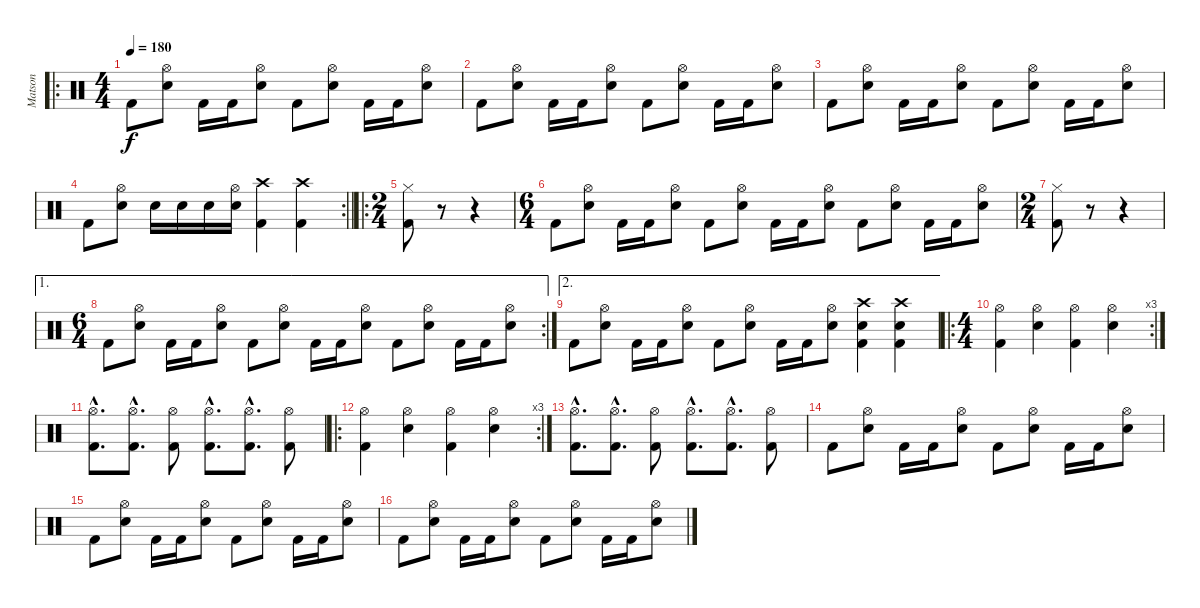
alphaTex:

\track ("Matson" "Matson") {instrument percussion}
\staff {score}
\articulation defaults
\ro
\ts (4 4)
\section ("" "")
\tempo 180
\clef neutral
\ks c "Kick (hit) 2".8{dy f}
("Hi-Hat (open)" "Snare (hit) 2").8 "Kick (hit) 2".16 "Kick (hit) 2".16 ("Hi-Hat (open)" "Snare (hit) 2").8 "Kick (hit) 2".8 ("Hi-Hat (open)" "Snare (hit) 2").8 "Kick (hit) 2".16 "Kick (hit) 2".16 ("Hi-Hat (open)" "Snare (hit) 2").8 |
"Kick (hit) 2".8 ("Hi-Hat (open)" "Snare (hit) 2").8 "Kick (hit) 2".16 "Kick (hit) 2".16 ("Hi-Hat (open)" "Snare (hit) 2").8 "Kick (hit) 2".8 ("Hi-Hat (open)" "Snare (hit) 2").8 "Kick (hit) 2".16 "Kick (hit) 2".16 ("Hi-Hat (open)" "Snare (hit) 2").8 |
"Kick (hit) 2".8 ("Hi-Hat (open)" "Snare (hit) 2").8 "Kick (hit) 2".16 "Kick (hit) 2".16 ("Hi-Hat (open)" "Snare (hit) 2").8 "Kick (hit) 2".8 ("Hi-Hat (open)" "Snare (hit) 2").8 "Kick (hit) 2".16 "Kick (hit) 2".16 ("Hi-Hat (open)" "Snare (hit) 2").8 |
\rc 2
\barLineRight lightlight "Kick (hit) 2".8
("Hi-Hat (open)" "Snare (hit) 2").8 "Snare (hit) 2".16 "Snare (hit) 2".16 "Snare (hit) 2".16 ("Hi-Hat (open)" "Snare (hit) 2").16 ("Crash high (hit)" "Kick (hit) 2").4 ("Crash high (hit)" "Kick (hit) 2").4 |
\ro
\ts (2 4)
\section ("" "")
("Hi-Hat (closed)" "Kick (hit) 2").8 r.8 r.4 |
\ts (6 4)
"Kick (hit) 2".8 ("Hi-Hat (open)" "Snare (hit) 2").8 "Kick (hit) 2".16 "Kick (hit) 2".16 ("Hi-Hat (open)" "Snare (hit) 2").8 "Kick (hit) 2".8 ("Hi-Hat (open)" "Snare (hit) 2").8 "Kick (hit) 2".16 "Kick (hit) 2".16 ("Hi-Hat (open)" "Snare (hit) 2").8 "Kick (hit) 2".8 ("Hi-Hat (open)" "Snare (hit) 2").8 "Kick (hit) 2".16 "Kick (hit) 2".16 ("Hi-Hat (open)" "Snare (hit) 2").8 |
\ts (2 4)
("Hi-Hat (closed)" "Kick (hit) 2").8 r.8 r.4 |
\ae 1
\rc 2
\ts (6 4)
"Kick (hit) 2".8 ("Hi-Hat (open)" "Snare (hit) 2").8 "Kick (hit) 2".16 "Kick (hit) 2".16 ("Hi-Hat (open)" "Snare (hit) 2").8 "Kick (hit) 2".8 ("Hi-Hat (open)" "Snare (hit) 2").8 "Kick (hit) 2".16 "Kick (hit) 2".16 ("Hi-Hat (open)" "Snare (hit) 2").8 "Kick (hit) 2".8 ("Hi-Hat (open)" "Snare (hit) 2").8 "Kick (hit) 2".16 "Kick (hit) 2".16 ("Hi-Hat (open)" "Snare (hit) 2").8 |
\ae 2 "Kick (hit) 2".8
("Hi-Hat (open)" "Snare (hit) 2").8 "Kick (hit) 2".16 "Kick (hit) 2".16 ("Hi-Hat (open)" "Snare (hit) 2").8 "Kick (hit) 2".8 ("Hi-Hat (open)" "Snare (hit) 2").8 "Kick (hit) 2".16 "Kick (hit) 2".16 ("Hi-Hat (open)" "Snare (hit) 2").8 ("Crash high (hit)" "Snare (hit) 2" "Kick (hit) 2").4 ("Crash high (hit)" "Snare (hit) 2" "Kick (hit) 2").4 |
\ro
\rc 3
\ts (4 4)
\section ("" "")
("Hi-Hat (open)" "Kick (hit) 2").4 ("Hi-Hat (open)" "Snare (hit) 2").4 ("Hi-Hat (open)" "Kick (hit) 2").4 ("Hi-Hat (open)" "Snare (hit) 2").4 |
("Hi-Hat (open)"{hac} "Kick (hit) 2"{hac}).8{d} ("Hi-Hat (open)"{hac} "Kick (hit) 2"{hac}).8{d} ("Hi-Hat (open)" "Kick (hit) 2").8 ("Hi-Hat (open)"{hac} "Kick (hit) 2"{hac}).8{d} ("Hi-Hat (open)"{hac} "Kick (hit) 2"{hac}).8{d} ("Hi-Hat (open)" "Kick (hit) 2").8 |
\ro
\rc 3
("Hi-Hat (open)" "Kick (hit) 2").4 ("Hi-Hat (open)" "Snare (hit) 2").4 ("Hi-Hat (open)" "Kick (hit) 2").4 ("Hi-Hat (open)" "Snare (hit) 2").4 |
("Hi-Hat (open)"{hac} "Kick (hit) 2"{hac}).8{d} ("Hi-Hat (open)"{hac} "Kick (hit) 2"{hac}).8{d} ("Hi-Hat (open)" "Kick (hit) 2").8 ("Hi-Hat (open)"{hac} "Kick (hit) 2"{hac}).8{d} ("Hi-Hat (open)"{hac} "Kick (hit) 2"{hac}).8{d} ("Hi-Hat (open)" "Kick (hit) 2").8 |
\section ("" "")
"Kick (hit) 2".8 ("Hi-Hat (open)" "Snare (hit) 2").8 "Kick (hit) 2".16 "Kick (hit) 2".16 ("Hi-Hat (open)" "Snare (hit) 2").8 "Kick (hit) 2".8 ("Hi-Hat (open)" "Snare (hit) 2").8 "Kick (hit) 2".16 "Kick (hit) 2".16 ("Hi-Hat (open)" "Snare (hit) 2").8 |
"Kick (hit) 2".8 ("Hi-Hat (open)" "Snare (hit) 2").8 "Kick (hit) 2".16 "Kick (hit) 2".16 ("Hi-Hat (open)" "Snare (hit) 2").8 "Kick (hit) 2".8 ("Hi-Hat (open)" "Snare (hit) 2").8 "Kick (hit) 2".16 "Kick (hit) 2".16 ("Hi-Hat (open)" "Snare (hit) 2").8 |
"Kick (hit) 2".8 ("Hi-Hat (open)" "Snare (hit) 2").8 "Kick (hit) 2".16 "Kick (hit) 2".16 ("Hi-Hat (open)" "Snare (hit) 2").8 "Kick (hit) 2".8 ("Hi-Hat (open)" "Snare (hit) 2").8 "Kick (hit) 2".16 "Kick (hit) 2".16 ("Hi-Hat (open)" "Snare (hit) 2").8
